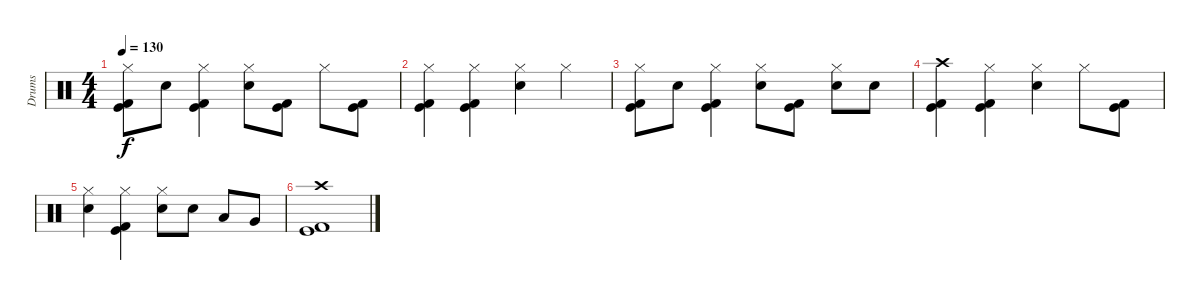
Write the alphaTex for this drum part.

\track ("Drums" "Drums") {instrument percussion}
\staff {score}
\articulation defaults
\ts (4 4)
\tempo 130
\clef neutral
\ks c
("Hi-Hat (closed)" "Kick (hit)" "Kick (hit) 2").8{dy f} "Electric Snare (hit)".8 ("Hi-Hat (closed)" "Kick (hit)" "Kick (hit) 2").4 ("Hi-Hat (closed)" "Electric Snare (hit)").8 ("Kick (hit)" "Kick (hit) 2").8 "Hi-Hat (closed)".8 ("Kick (hit)" "Kick (hit) 2").8 |
("Hi-Hat (closed)" "Kick (hit)" "Kick (hit) 2").4 ("Hi-Hat (closed)" "Kick (hit)" "Kick (hit) 2").4 ("Hi-Hat (closed)" "Electric Snare (hit)").4 "Hi-Hat (closed)".4 |
("Hi-Hat (closed)" "Kick (hit)" "Kick (hit) 2").8 "Electric Snare (hit)".8 ("Hi-Hat (closed)" "Kick (hit)" "Kick (hit) 2").4 ("Hi-Hat (closed)" "Electric Snare (hit)").8 ("Kick (hit)" "Kick (hit) 2").8 ("Hi-Hat (closed)" "Electric Snare (hit)").8 "Electric Snare (hit)".8 |
("Crash high (hit)" "Kick (hit)" "Kick (hit) 2").4 ("Hi-Hat (closed)" "Kick (hit)" "Kick (hit) 2").4 ("Hi-Hat (closed)" "Electric Snare (hit)").4 "Hi-Hat (closed)".8 ("Kick (hit)" "Kick (hit) 2").8 |
("Hi-Hat (closed)" "Electric Snare (hit)").4 ("Hi-Hat (closed)" "Kick (hit)" "Kick (hit) 2").4 ("Hi-Hat (closed)" "Electric Snare (hit)").8 "Electric Snare (hit)".8 "Low Tom (hit)".8 "Very Low Tom (hit)".8 |
("Crash high (hit)" "Kick (hit)" "Kick (hit) 2").1{volume 0}
